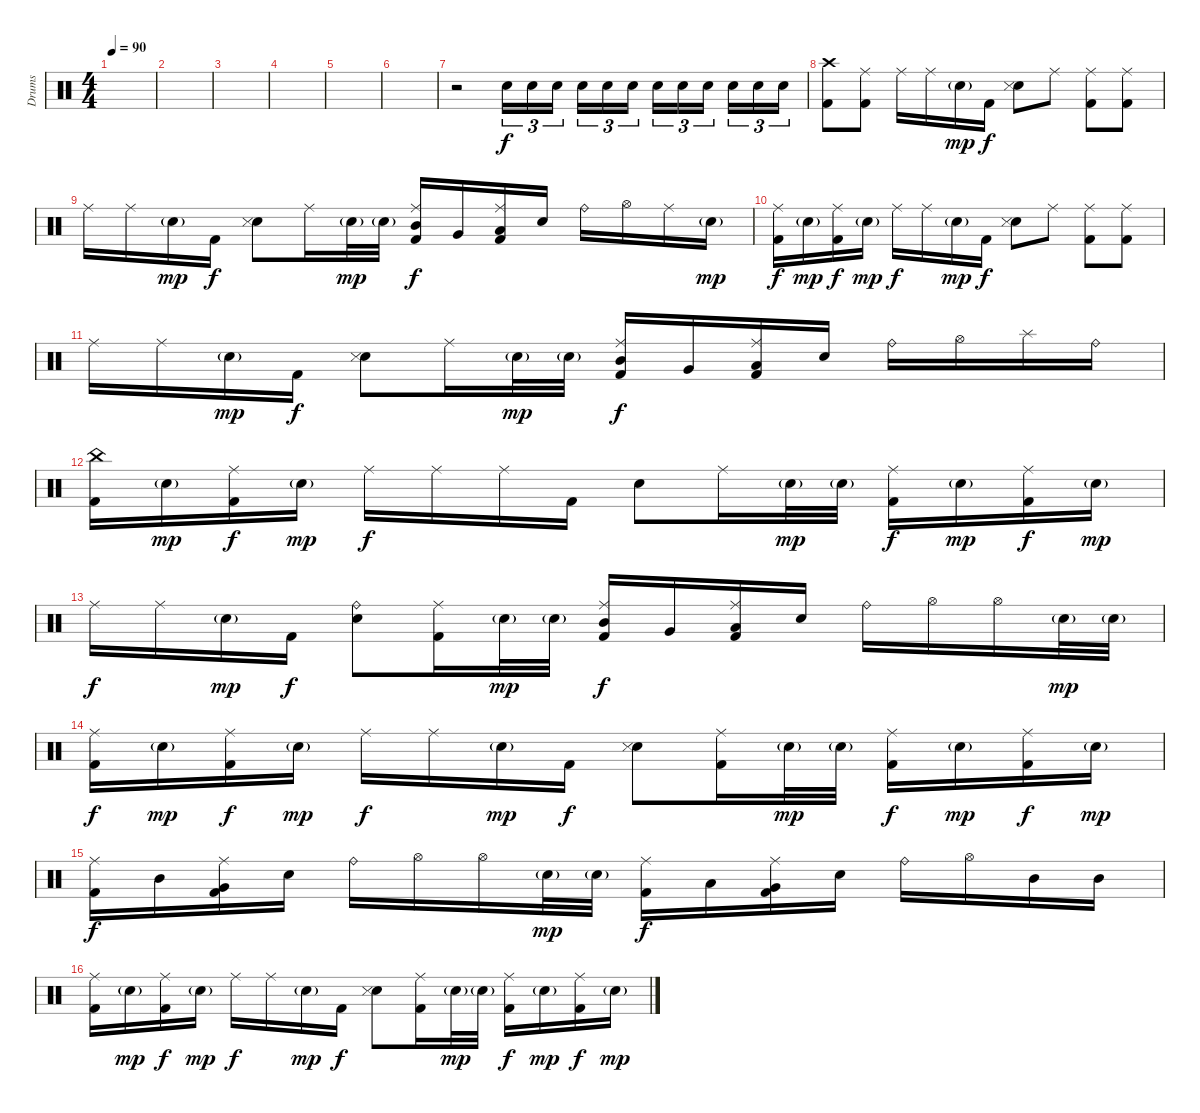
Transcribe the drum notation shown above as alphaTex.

\track ("Drums" "Drums") {instrument percussion}
\staff {score}
\articulation defaults
\ts (4 4)
\tempo 90
\clef neutral
\ks c
|
|
|
|
|
|
r.2{volume 0} "Electric Snare (hit)".16{tu (3 2) volume 8} "Electric Snare (hit)".16{tu (3 2)} "Electric Snare (hit)".16{tu (3 2) beam splitsecondary} "Electric Snare (hit)".16{tu (3 2)} "Electric Snare (hit)".16{tu (3 2)} "Electric Snare (hit)".16{tu (3 2)} "Electric Snare (hit)".16{tu (3 2)} "Electric Snare (hit)".16{tu (3 2)} "Electric Snare (hit)".16{tu (3 2) beam splitsecondary} "Electric Snare (hit)".16{tu (3 2)} "Electric Snare (hit)".16{tu (3 2)} "Electric Snare (hit)".16{tu (3 2)} |
("Crash high (hit)" "Kick (hit) 2").8 ("Kick (hit) 2" "Ride (middle)").8 "Ride (middle)".16 "Ride (middle)".16 "Electric Snare (hit)"{g}.16{dy mp} "Kick (hit) 2".16{dy f} ("Electric Snare (hit)" "Snare (side stick) 3").8 "Ride (middle)".8 ("Ride (middle)" "Kick (hit) 2").8 ("Ride (middle)" "Kick (hit) 2").8 |
"Ride (middle)".16 "Ride (middle)".16 "Electric Snare (hit)"{g}.16{dy mp} "Kick (hit) 2".16{dy f} ("Electric Snare (hit)" "Snare (side stick) 3").8 "Ride (middle)".16 "Electric Snare (hit)"{g}.32{dy mp} "Electric Snare (hit)"{g}.32 ("Ride (middle)" "Mid Tom (hit)" "Kick (hit) 2").16{dy f} "Very Low Tom (hit)".16 ("Low Floor Tom (hit)" "Ride (middle)" "Kick (hit) 2").16 "Electric Snare (hit)".16 "Ride (bell)".16 "Hi-Hat (open)".16 "Ride (middle)".16 "Electric Snare (hit)"{g}.16{dy mp} |
("Ride (middle)" "Kick (hit) 2").16{dy f} "Electric Snare (hit)"{g}.16{dy mp} ("Ride (middle)" "Kick (hit) 2").16{dy f} "Electric Snare (hit)"{g}.16{dy mp} "Ride (middle)".16{dy f} "Ride (middle)".16 "Electric Snare (hit)"{g}.16{dy mp} "Kick (hit) 2".16{dy f} ("Electric Snare (hit)" "Snare (side stick) 3").8 "Ride (middle)".8 ("Ride (middle)" "Kick (hit) 2").8 ("Ride (middle)" "Kick (hit) 2").8 |
"Ride (middle)".16 "Ride (middle)".16 "Electric Snare (hit)"{g}.16{dy mp} "Kick (hit) 2".16{dy f} ("Electric Snare (hit)" "Snare (side stick) 3").8 "Ride (middle)".16 "Electric Snare (hit)"{g}.32{dy mp} "Electric Snare (hit)"{g}.32 ("Ride (middle)" "Mid Tom (hit)" "Kick (hit) 2").16{dy f} "Very Low Tom (hit)".16 ("Low Floor Tom (hit)" "Ride (middle)" "Kick (hit) 2").16 "Electric Snare (hit)".16 "Ride (bell)".16 "Hi-Hat (open)".16 "Splash (hit)".16 "Ride (bell)".16 |
("China (hit)" "Kick (hit) 2").16 "Electric Snare (hit)"{g}.16{dy mp} ("Ride (middle)" "Kick (hit) 2").16{dy f} "Electric Snare (hit)"{g}.16{dy mp} "Ride (middle)".16{dy f} "Ride (middle)".16 "Ride (middle)".16 "Kick (hit) 2".16 "Electric Snare (hit)".8 "Ride (middle)".16 "Electric Snare (hit)"{g}.32{dy mp} "Electric Snare (hit)"{g}.32 ("Ride (middle)" "Kick (hit) 2").16{dy f} "Electric Snare (hit)"{g}.16{dy mp} ("Ride (middle)" "Kick (hit) 2").16{dy f} "Electric Snare (hit)"{g}.16{dy mp} |
"Ride (middle)".16{dy f} "Ride (middle)".16 "Electric Snare (hit)"{g}.16{dy mp} "Kick (hit) 2".16{dy f} ("Electric Snare (hit)" "Ride (bell)").8 ("Ride (middle)" "Kick (hit) 2").16 "Electric Snare (hit)"{g}.32{dy mp} "Electric Snare (hit)"{g}.32 ("Ride (middle)" "Mid Tom (hit)" "Kick (hit) 2").16{dy f} "Very Low Tom (hit)".16 ("Low Floor Tom (hit)" "Ride (middle)" "Kick (hit) 2").16 "Electric Snare (hit)".16 "Ride (bell)".16 "Hi-Hat (open)".16 "Hi-Hat (open)".16 "Electric Snare (hit)"{g}.32{dy mp} "Electric Snare (hit)"{g}.32 |
("Ride (middle)" "Kick (hit) 2").16{dy f} "Electric Snare (hit)"{g}.16{dy mp} ("Ride (middle)" "Kick (hit) 2").16{dy f} "Electric Snare (hit)"{g}.16{dy mp} "Ride (middle)".16{dy f} "Ride (middle)".16 "Electric Snare (hit)"{g}.16{dy mp} "Kick (hit) 2".16{dy f} ("Electric Snare (hit)" "Snare (side stick) 3").8 ("Ride (middle)" "Kick (hit) 2").16 "Electric Snare (hit)"{g}.32{dy mp} "Electric Snare (hit)"{g}.32 ("Kick (hit) 2" "Ride (middle)").16{dy f} "Electric Snare (hit)"{g}.16{dy mp} ("Ride (middle)" "Kick (hit) 2").16{dy f} "Electric Snare (hit)"{g}.16{dy mp} |
("Ride (middle)" "Kick (hit) 2").16{dy f} "Mid Tom (hit)".16 ("Very Low Tom (hit)" "Kick (hit) 2" "Ride (middle)").16 "Electric Snare (hit)".16 "Ride (bell)".16 "Hi-Hat (open)".16 "Hi-Hat (open)".16 "Electric Snare (hit)"{g}.32{dy mp} "Electric Snare (hit)"{g}.32 ("Kick (hit) 2" "Ride (middle)").16{dy f} "Low Tom (hit)".16 ("Very Low Tom (hit)" "Kick (hit) 2" "Ride (middle)").16 "Electric Snare (hit)".16 "Ride (bell)".16 "Hi-Hat (open)".16 "Mid Tom (hit)".16 "Mid Tom (hit)".16 |
("Ride (middle)" "Kick (hit) 2").16 "Electric Snare (hit)"{g}.16{dy mp} ("Ride (middle)" "Kick (hit) 2").16{dy f} "Electric Snare (hit)"{g}.16{dy mp} "Ride (middle)".16{dy f} "Ride (middle)".16 "Electric Snare (hit)"{g}.16{dy mp} "Kick (hit) 2".16{dy f} ("Electric Snare (hit)" "Snare (side stick) 3").8 ("Ride (middle)" "Kick (hit) 2").16 "Electric Snare (hit)"{g}.32{dy mp} "Electric Snare (hit)"{g}.32 ("Kick (hit) 2" "Ride (middle)").16{dy f} "Electric Snare (hit)"{g}.16{dy mp} ("Ride (middle)" "Kick (hit) 2").16{dy f} "Electric Snare (hit)"{g}.16{dy mp}
